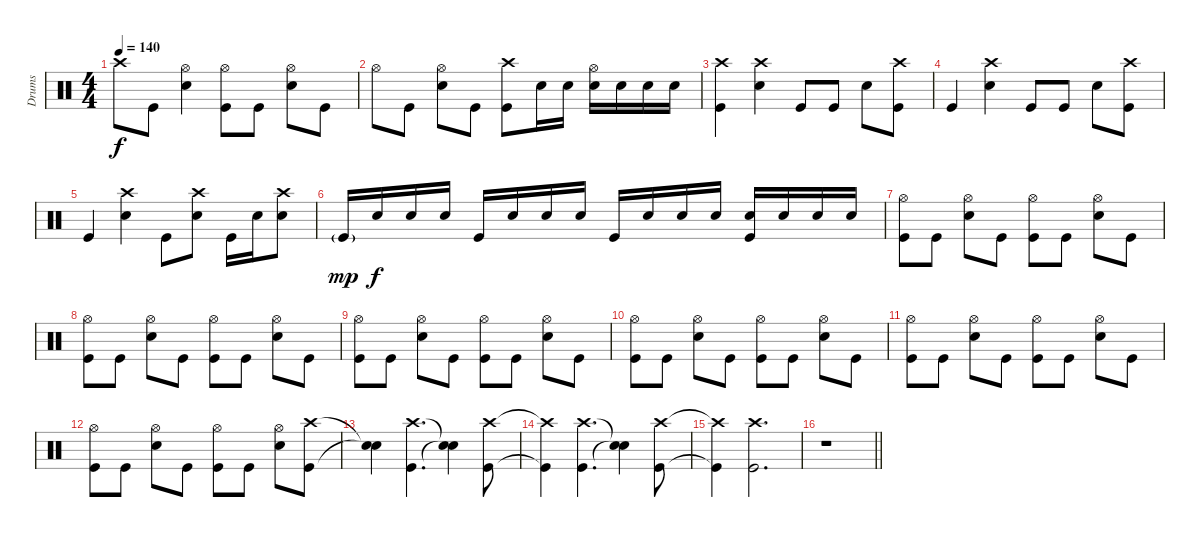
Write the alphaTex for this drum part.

\track ("Drums" "Drums") {instrument percussion}
\staff {score}
\articulation defaults
\ts (4 4)
\tempo 140
\clef neutral
\ks c "Crash high (hit)".8{dy f} "Kick (hit)".8
("Hi-Hat (open)" "Electric Snare (hit)").4 ("Hi-Hat (open)" "Kick (hit)").8 "Kick (hit)".8 ("Hi-Hat (open)" "Electric Snare (hit)").8 "Kick (hit)".8 |
"Hi-Hat (open)".8 "Kick (hit)".8 ("Hi-Hat (open)" "Electric Snare (hit)").8 "Kick (hit)".8 ("Crash high (hit)" "Kick (hit)").8 "Electric Snare (hit)".16 "Electric Snare (hit)".16 ("Hi-Hat (open)" "Electric Snare (hit)").16 "Snare (hit) 2".16 "Snare (hit) 2".16 "Snare (hit) 2".16 |
("Crash high (hit)" "Kick (hit)").4 ("Crash high (hit)" "Electric Snare (hit)").4 "Kick (hit)".8 "Kick (hit)".8 "Electric Snare (hit)".8 ("Crash high (hit)" "Kick (hit)").8 |
"Kick (hit)".4 ("Crash high (hit)" "Electric Snare (hit)").4 "Kick (hit)".8 "Kick (hit)".8 "Electric Snare (hit)".8 ("Crash high (hit)" "Kick (hit)").8 |
"Kick (hit)".4 ("Crash high (hit)" "Electric Snare (hit)").4 "Kick (hit)".8 ("Crash high (hit)" "Electric Snare (hit)").8 "Kick (hit)".16 "Electric Snare (hit)".16 ("Crash high (hit)" "Electric Snare (hit)").8 |
"Kick (hit)"{g}.16{dy mp} "Electric Snare (hit)".16{dy f} "Electric Snare (hit)".16 "Electric Snare (hit)".16 "Kick (hit)".16 "Electric Snare (hit)".16 "Electric Snare (hit)".16 "Electric Snare (hit)".16 "Kick (hit)".16 "Electric Snare (hit)".16 "Electric Snare (hit)".16 "Electric Snare (hit)".16 ("Snare (hit) 2" "Kick (hit)").16 "Snare (hit) 2".16 "Snare (hit) 2".16 "Snare (hit) 2".16 |
("Hi-Hat (open)" "Kick (hit)").8 "Kick (hit)".8 ("Hi-Hat (open)" "Electric Snare (hit)").8 "Kick (hit)".8 ("Hi-Hat (open)" "Kick (hit)").8 "Kick (hit)".8 ("Hi-Hat (open)" "Electric Snare (hit)").8 "Kick (hit)".8 |
("Hi-Hat (open)" "Kick (hit)").8 "Kick (hit)".8 ("Hi-Hat (open)" "Electric Snare (hit)").8 "Kick (hit)".8 ("Hi-Hat (open)" "Kick (hit)").8 "Kick (hit)".8 ("Hi-Hat (open)" "Electric Snare (hit)").8 "Kick (hit)".8 |
("Hi-Hat (open)" "Kick (hit)").8 "Kick (hit)".8 ("Hi-Hat (open)" "Electric Snare (hit)").8 "Kick (hit)".8 ("Hi-Hat (open)" "Kick (hit)").8 "Kick (hit)".8 ("Hi-Hat (open)" "Electric Snare (hit)").8 "Kick (hit)".8 |
("Hi-Hat (open)" "Kick (hit)").8 "Kick (hit)".8 ("Hi-Hat (open)" "Electric Snare (hit)").8 "Kick (hit)".8 ("Hi-Hat (open)" "Kick (hit)").8 "Kick (hit)".8 ("Hi-Hat (open)" "Electric Snare (hit)").8 "Kick (hit)".8 |
("Hi-Hat (open)" "Kick (hit)").8 "Kick (hit)".8 ("Hi-Hat (open)" "Electric Snare (hit)").8 "Kick (hit)".8 ("Hi-Hat (open)" "Kick (hit)").8 "Kick (hit)".8 ("Hi-Hat (open)" "Electric Snare (hit)").8 "Kick (hit)".8 |
("Hi-Hat (open)" "Kick (hit)").8 "Kick (hit)".8 ("Hi-Hat (open)" "Electric Snare (hit)").8 "Kick (hit)".8 ("Hi-Hat (open)" "Kick (hit)").8 "Kick (hit)".8 ("Hi-Hat (open)" "Electric Snare (hit)").8 ("Crash high (hit)" "Kick (hit)").8 |
("Snare (hit)"{t} "Snare (hit)"{t}).4 ("Crash high (hit)" "Kick (hit)").4{d} ("Snare (hit)"{t} "Snare (hit)"{t}).4 ("Crash high (hit)" "Kick (hit)").8 |
("Crash high (hit)"{t} "Kick (hit)"{t}).4 ("Crash high (hit)" "Kick (hit)").4{d} ("Snare (hit)"{t} "Snare (hit)"{t}).4 ("Crash high (hit)" "Kick (hit)").8 |
("Crash high (hit)"{t} "Kick (hit)"{t}).4 ("Crash high (hit)" "Kick (hit)").2{d} |
\barLineRight lightlight
r.1
